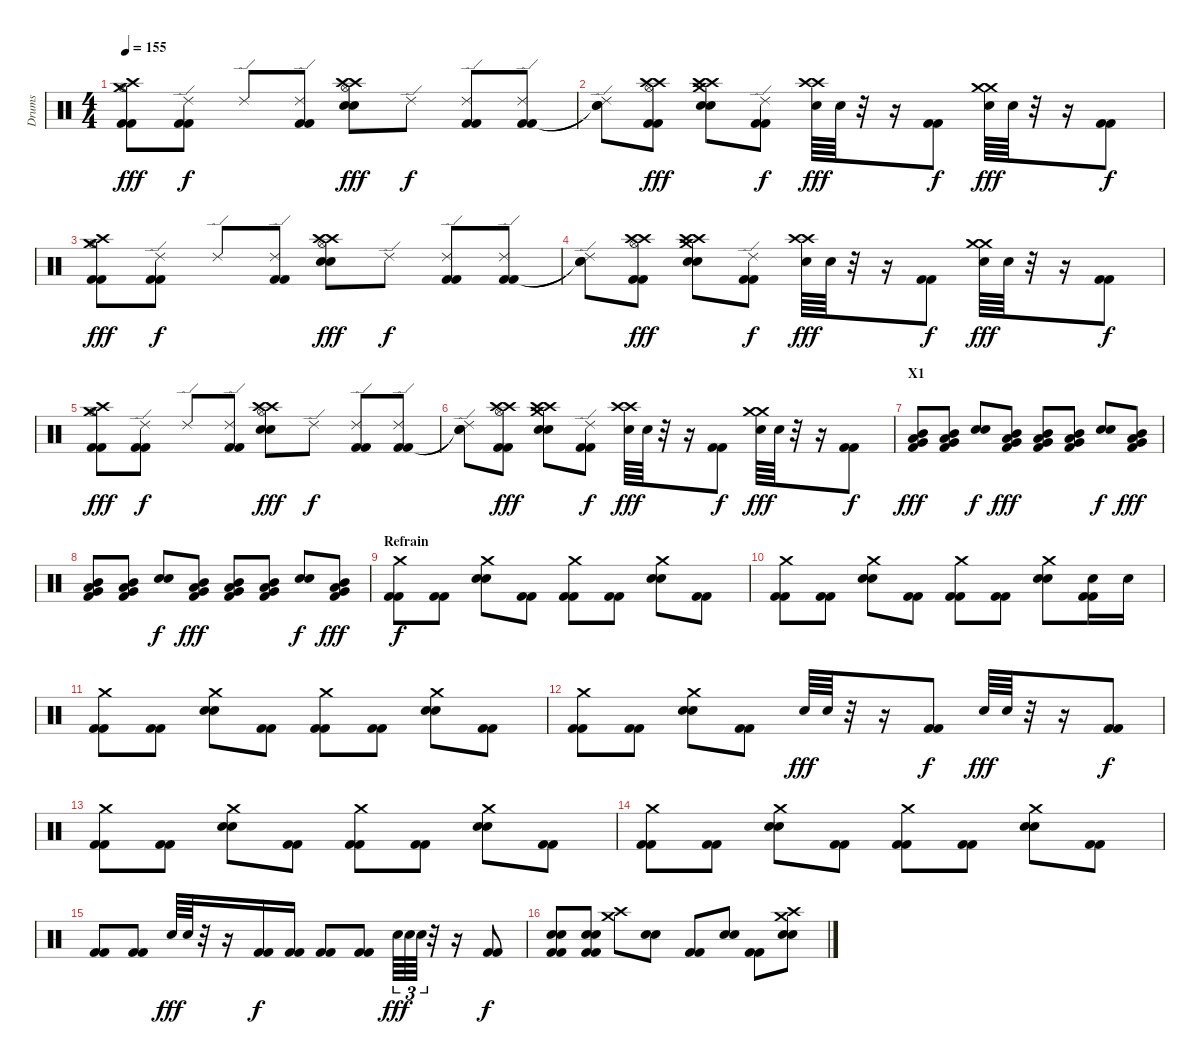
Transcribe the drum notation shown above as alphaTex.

\track ("Drums" "Drums") {instrument percussion}
\staff {score}
\articulation defaults
\ts (4 4)
\tempo 155
\clef neutral
\ks c
("Crash high (hit)" "Crash medium (hit)" "Hi-Hat (open)" "Kick (hit) 2" "Kick (hit) 2").8{dy fff} ("Ride (edge) 2" "Kick (hit) 2" "Kick (hit) 2").8{dy f} "Ride (edge) 2".8 ("Ride (edge) 2" "Kick (hit) 2" "Kick (hit) 2").8 ("Crash high (hit)" "Crash high (hit)" "Hi-Hat (open)" "Snare (hit) 2" "Electric Snare (hit)").8{dy fff} "Ride (edge) 2".8{dy f} ("Ride (edge) 2" "Kick (hit) 2" "Kick (hit) 2").8 ("Ride (edge) 2" "Kick (hit) 2" "Kick (hit) 2").8 |
("Ride (edge) 2" "Snare (hit)"{t} "Snare (hit)"{t}).8 ("Crash high (hit)" "Crash high (hit)" "Hi-Hat (open)" "Kick (hit) 2" "Kick (hit) 2").8{dy fff} ("Crash high (hit)" "Crash high (hit)" "Crash medium (hit)" "Electric Snare (hit)" "Snare (hit) 2").8 ("Ride (edge) 2" "Kick (hit) 2" "Kick (hit) 2").8{dy f} ("Crash high (hit)" "Crash high (hit)" "Snare (hit) 2").64{dy fff} "Electric Snare (hit)".64 r.32 r.16 ("Kick (hit) 2" "Kick (hit) 2").8{dy f} ("Crash medium (hit)" "Crash medium (hit)" "Snare (hit) 2").64{dy fff} "Electric Snare (hit)".64 r.32 r.16 ("Kick (hit) 2" "Kick (hit) 2").8{dy f} |
("Crash high (hit)" "Crash medium (hit)" "Hi-Hat (open)" "Kick (hit) 2" "Kick (hit) 2").8{dy fff} ("Ride (edge) 2" "Kick (hit) 2" "Kick (hit) 2").8{dy f} "Ride (edge) 2".8 ("Ride (edge) 2" "Kick (hit) 2" "Kick (hit) 2").8 ("Crash high (hit)" "Crash high (hit)" "Hi-Hat (open)" "Snare (hit) 2" "Electric Snare (hit)").8{dy fff} "Ride (edge) 2".8{dy f} ("Ride (edge) 2" "Kick (hit) 2" "Kick (hit) 2").8 ("Ride (edge) 2" "Kick (hit) 2" "Kick (hit) 2").8 |
("Ride (edge) 2" "Snare (hit)"{t} "Snare (hit)"{t}).8 ("Crash high (hit)" "Crash high (hit)" "Hi-Hat (open)" "Kick (hit) 2" "Kick (hit) 2").8{dy fff} ("Crash high (hit)" "Crash high (hit)" "Crash medium (hit)" "Electric Snare (hit)" "Snare (hit) 2").8 ("Ride (edge) 2" "Kick (hit) 2" "Kick (hit) 2").8{dy f} ("Crash high (hit)" "Crash high (hit)" "Snare (hit) 2").64{dy fff} "Electric Snare (hit)".64 r.32 r.16 ("Kick (hit) 2" "Kick (hit) 2").8{dy f} ("Crash medium (hit)" "Crash medium (hit)" "Snare (hit) 2").64{dy fff} "Electric Snare (hit)".64 r.32 r.16 ("Kick (hit) 2" "Kick (hit) 2").8{dy f} |
("Crash high (hit)" "Crash medium (hit)" "Hi-Hat (open)" "Kick (hit) 2" "Kick (hit) 2").8{dy fff} ("Ride (edge) 2" "Kick (hit) 2" "Kick (hit) 2").8{dy f} "Ride (edge) 2".8 ("Ride (edge) 2" "Kick (hit) 2" "Kick (hit) 2").8 ("Crash high (hit)" "Crash high (hit)" "Hi-Hat (open)" "Snare (hit) 2" "Electric Snare (hit)").8{dy fff} "Ride (edge) 2".8{dy f} ("Ride (edge) 2" "Kick (hit) 2" "Kick (hit) 2").8 ("Ride (edge) 2" "Kick (hit) 2" "Kick (hit) 2").8 |
("Ride (edge) 2" "Snare (hit)"{t} "Snare (hit)"{t}).8 ("Crash high (hit)" "Crash high (hit)" "Hi-Hat (open)" "Kick (hit) 2" "Kick (hit) 2").8{dy fff} ("Crash high (hit)" "Crash high (hit)" "Crash medium (hit)" "Electric Snare (hit)" "Snare (hit) 2").8 ("Ride (edge) 2" "Kick (hit) 2" "Kick (hit) 2").8{dy f} ("Crash high (hit)" "Crash high (hit)" "Snare (hit) 2").64{dy fff} "Electric Snare (hit)".64 r.32 r.16 ("Kick (hit) 2" "Kick (hit) 2").8{dy f} ("Crash medium (hit)" "Crash medium (hit)" "Snare (hit) 2").64{dy fff} "Electric Snare (hit)".64 r.32 r.16 ("Kick (hit) 2" "Kick (hit) 2").8{dy f} |
\section ("" "X1")
("Mid Tom (hit)" "Low Tom (hit)" "Very Low Tom (hit)" "Kick (hit) 2").8{dy fff volume 6} ("Mid Tom (hit)" "Low Tom (hit)" "Very Low Tom (hit)" "Kick (hit) 2").8{volume 16} ("Snare (hit) 2" "Electric Snare (hit)").8{dy f} ("Mid Tom (hit)" "Low Tom (hit)" "Very Low Tom (hit)" "Kick (hit) 2").8{dy fff} ("Mid Tom (hit)" "Low Tom (hit)" "Very Low Tom (hit)" "Kick (hit) 2").8 ("Mid Tom (hit)" "Low Tom (hit)" "Very Low Tom (hit)" "Kick (hit) 2").8 ("Snare (hit) 2" "Electric Snare (hit)").8{dy f} ("Mid Tom (hit)" "Low Tom (hit)" "Very Low Tom (hit)" "Kick (hit) 2").8{dy fff} |
("Mid Tom (hit)" "Low Tom (hit)" "Very Low Tom (hit)" "Kick (hit) 2").8 ("Mid Tom (hit)" "Low Tom (hit)" "Very Low Tom (hit)" "Kick (hit) 2").8 ("Snare (hit) 2" "Electric Snare (hit)").8{dy f} ("Mid Tom (hit)" "Low Tom (hit)" "Very Low Tom (hit)" "Kick (hit) 2").8{dy fff} ("Mid Tom (hit)" "Low Tom (hit)" "Very Low Tom (hit)" "Kick (hit) 2").8 ("Mid Tom (hit)" "Low Tom (hit)" "Very Low Tom (hit)" "Kick (hit) 2").8 ("Snare (hit) 2" "Electric Snare (hit)").8{dy f} ("Mid Tom (hit)" "Low Tom (hit)" "Very Low Tom (hit)" "Kick (hit) 2").8{dy fff} |
\section ("" "Refrain")
("Crash medium (hit)" "Kick (hit) 2" "Kick (hit) 2").8{dy f volume 11} ("Kick (hit) 2" "Kick (hit) 2").8 ("Crash medium (hit)" "Snare (hit) 2" "Electric Snare (hit)").8 ("Kick (hit) 2" "Kick (hit) 2").8 ("Crash medium (hit)" "Kick (hit) 2" "Kick (hit) 2").8 ("Kick (hit) 2" "Kick (hit) 2").8 ("Crash medium (hit)" "Snare (hit) 2" "Electric Snare (hit)").8 ("Kick (hit) 2" "Kick (hit) 2").8 |
("Crash medium (hit)" "Kick (hit) 2" "Kick (hit) 2").8 ("Kick (hit) 2" "Kick (hit) 2").8 ("Crash medium (hit)" "Snare (hit) 2" "Electric Snare (hit)").8 ("Kick (hit) 2" "Kick (hit) 2").8 ("Crash medium (hit)" "Kick (hit) 2" "Kick (hit) 2").8 ("Kick (hit) 2" "Kick (hit) 2").8 ("Crash medium (hit)" "Snare (hit) 2" "Electric Snare (hit)").8 ("Electric Snare (hit)" "Kick (hit) 2" "Kick (hit) 2").16 "Electric Snare (hit)".16 |
("Crash medium (hit)" "Kick (hit) 2" "Kick (hit) 2").8 ("Kick (hit) 2" "Kick (hit) 2").8 ("Crash medium (hit)" "Snare (hit) 2" "Electric Snare (hit)").8 ("Kick (hit) 2" "Kick (hit) 2").8 ("Crash medium (hit)" "Kick (hit) 2" "Kick (hit) 2").8 ("Kick (hit) 2" "Kick (hit) 2").8 ("Crash medium (hit)" "Snare (hit) 2" "Electric Snare (hit)").8 ("Kick (hit) 2" "Kick (hit) 2").8 |
("Crash medium (hit)" "Kick (hit) 2" "Kick (hit) 2").8 ("Kick (hit) 2" "Kick (hit) 2").8 ("Crash medium (hit)" "Snare (hit) 2" "Electric Snare (hit)").8 ("Kick (hit) 2" "Kick (hit) 2").8 "Snare (hit) 2".64{dy fff} "Electric Snare (hit)".64 r.32 r.16 ("Kick (hit) 2" "Kick (hit) 2").8{dy f} "Snare (hit) 2".64{dy fff} "Electric Snare (hit)".64 r.32 r.16 ("Kick (hit) 2" "Kick (hit) 2").8{dy f} |
("Crash medium (hit)" "Kick (hit) 2" "Kick (hit) 2").8 ("Kick (hit) 2" "Kick (hit) 2").8 ("Crash medium (hit)" "Snare (hit) 2" "Electric Snare (hit)").8 ("Kick (hit) 2" "Kick (hit) 2").8 ("Crash medium (hit)" "Kick (hit) 2" "Kick (hit) 2").8 ("Kick (hit) 2" "Kick (hit) 2").8 ("Crash medium (hit)" "Snare (hit) 2" "Electric Snare (hit)").8 ("Kick (hit) 2" "Kick (hit) 2").8 |
("Crash medium (hit)" "Kick (hit) 2" "Kick (hit) 2").8 ("Kick (hit) 2" "Kick (hit) 2").8 ("Crash medium (hit)" "Snare (hit) 2" "Electric Snare (hit)").8 ("Kick (hit) 2" "Kick (hit) 2").8 ("Crash medium (hit)" "Kick (hit) 2" "Kick (hit) 2").8 ("Kick (hit) 2" "Kick (hit) 2").8 ("Crash medium (hit)" "Snare (hit) 2" "Electric Snare (hit)").8 ("Kick (hit) 2" "Kick (hit) 2").8 |
("Kick (hit) 2" "Kick (hit) 2").8 ("Kick (hit) 2" "Kick (hit) 2").8 "Snare (hit) 2".64{dy fff} "Electric Snare (hit)".64 r.32 r.16 ("Kick (hit) 2" "Kick (hit) 2").16{dy f} ("Kick (hit) 2" "Kick (hit) 2").16 ("Kick (hit) 2" "Kick (hit) 2").8 ("Kick (hit) 2" "Kick (hit) 2").8 "Snare (hit) 2".64{tu (3 2) dy fff} "Electric Snare (hit)".64{tu (3 2)} "Snare (hit) 2".64{tu (3 2)} r.32 r.16 ("Kick (hit) 2" "Kick (hit) 2").8{dy f} |
("Snare (hit) 2" "Electric Snare (hit)" "Kick (hit) 2" "Kick (hit) 2").8 ("Snare (hit) 2" "Electric Snare (hit)" "Kick (hit) 2" "Kick (hit) 2").8 ("Crash medium (hit)" "Crash high (hit)").8 ("Snare (hit) 2" "Electric Snare (hit)").8 ("Kick (hit) 2" "Kick (hit) 2").8 ("Snare (hit) 2" "Electric Snare (hit)").8 ("Kick (hit) 2" "Kick (hit) 2").8 ("Crash medium (hit)" "Crash high (hit)" "Snare (hit) 2" "Electric Snare (hit)").8
